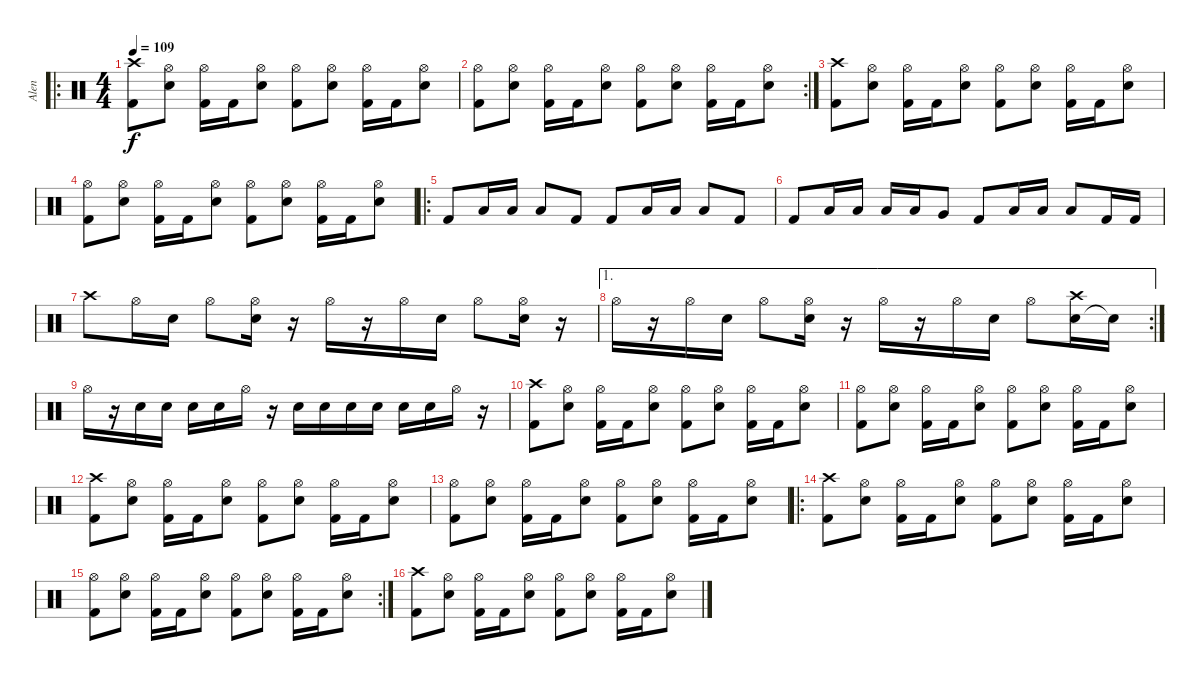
\track ("Alen" "Alen") {instrument percussion}
\staff {score}
\articulation defaults
\ro
\ts (4 4)
\tempo 109
\clef neutral
\ks c
("Crash high (hit)" "Kick (hit) 2").8{dy f} ("Hi-Hat (open)" "Electric Snare (hit)").8 ("Hi-Hat (open)" "Kick (hit) 2").16 "Kick (hit) 2".16 ("Hi-Hat (open)" "Electric Snare (hit)").8 ("Hi-Hat (open)" "Kick (hit) 2").8 ("Hi-Hat (open)" "Electric Snare (hit)").8 ("Hi-Hat (open)" "Kick (hit) 2").16 "Kick (hit) 2".16 ("Hi-Hat (open)" "Electric Snare (hit)").8 |
\rc 2
("Hi-Hat (open)" "Kick (hit) 2").8 ("Hi-Hat (open)" "Electric Snare (hit)").8 ("Hi-Hat (open)" "Kick (hit) 2").16 "Kick (hit) 2".16 ("Hi-Hat (open)" "Electric Snare (hit)").8 ("Hi-Hat (open)" "Kick (hit) 2").8 ("Hi-Hat (open)" "Electric Snare (hit)").8 ("Hi-Hat (open)" "Kick (hit) 2").16 "Kick (hit) 2".16 ("Hi-Hat (open)" "Electric Snare (hit)").8 |
("Crash high (hit)" "Kick (hit) 2").8 ("Hi-Hat (open)" "Electric Snare (hit)").8 ("Hi-Hat (open)" "Kick (hit) 2").16 "Kick (hit) 2".16 ("Hi-Hat (open)" "Electric Snare (hit)").8 ("Hi-Hat (open)" "Kick (hit) 2").8 ("Hi-Hat (open)" "Electric Snare (hit)").8 ("Hi-Hat (open)" "Kick (hit) 2").16 "Kick (hit) 2".16 ("Hi-Hat (open)" "Electric Snare (hit)").8 |
("Hi-Hat (open)" "Kick (hit) 2").8 ("Hi-Hat (open)" "Electric Snare (hit)").8 ("Hi-Hat (open)" "Kick (hit) 2").16 "Kick (hit) 2".16 ("Hi-Hat (open)" "Electric Snare (hit)").8 ("Hi-Hat (open)" "Kick (hit) 2").8 ("Hi-Hat (open)" "Electric Snare (hit)").8 ("Hi-Hat (open)" "Kick (hit) 2").16 "Kick (hit) 2".16 ("Hi-Hat (open)" "Electric Snare (hit)").8 |
\ro "Kick (hit) 2".8 "Low Tom (hit)".16 "Low Floor Tom (hit)".16 "Low Tom (hit)".8 "Kick (hit) 2".8 "Kick (hit) 2".8 "Low Tom (hit)".16 "Low Floor Tom (hit)".16 "Low Tom (hit)".8 "Kick (hit) 2".8
|
"Kick (hit) 2".8 "Low Tom (hit)".16 "Low Floor Tom (hit)".16 "Low Tom (hit)".16 "Low Floor Tom (hit)".16 "Very Low Tom (hit)".8 "Kick (hit) 2".8 "Low Tom (hit)".16 "Low Floor Tom (hit)".16 "Low Tom (hit)".8 "Kick (hit) 2".16 "Kick (hit) 2".16 |
"Crash high (hit)".8 "Hi-Hat (open)".16 "Electric Snare (hit)".16 "Hi-Hat (open)".8 ("Electric Snare (hit)" "Hi-Hat (open)").16 r.16 "Hi-Hat (open)".16 r.16 "Hi-Hat (open)".16 "Electric Snare (hit)".16 "Hi-Hat (open)".8 ("Electric Snare (hit)" "Hi-Hat (open)").16 r.16 |
\ae 1
\rc 2 "Hi-Hat (open)".16
r.16 "Hi-Hat (open)".16 "Electric Snare (hit)".16 "Hi-Hat (open)".8 ("Electric Snare (hit)" "Hi-Hat (open)").16 r.16 "Hi-Hat (open)".16 r.16 "Hi-Hat (open)".16 "Electric Snare (hit)".16 "Hi-Hat (open)".8 ("Electric Snare (hit)" "Crash high (hit)").16 "Snare (hit)"{t}.16 |
"Hi-Hat (open)".16 r.16 "Electric Snare (hit)".16 "Electric Snare (hit)".16 "Electric Snare (hit)".16 "Electric Snare (hit)".16 "Hi-Hat (open)".16 r.16 "Electric Snare (hit)".16 "Electric Snare (hit)".16 "Electric Snare (hit)".16 "Electric Snare (hit)".16 "Electric Snare (hit)".16 "Electric Snare (hit)".16 "Hi-Hat (open)".16 r.16 |
("Crash high (hit)" "Kick (hit) 2").8 ("Hi-Hat (open)" "Electric Snare (hit)").8 ("Hi-Hat (open)" "Kick (hit) 2").16 "Kick (hit) 2".16 ("Hi-Hat (open)" "Electric Snare (hit)").8 ("Hi-Hat (open)" "Kick (hit) 2").8 ("Hi-Hat (open)" "Electric Snare (hit)").8 ("Hi-Hat (open)" "Kick (hit) 2").16 "Kick (hit) 2".16 ("Hi-Hat (open)" "Electric Snare (hit)").8 |
("Hi-Hat (open)" "Kick (hit) 2").8 ("Hi-Hat (open)" "Electric Snare (hit)").8 ("Hi-Hat (open)" "Kick (hit) 2").16 "Kick (hit) 2".16 ("Hi-Hat (open)" "Electric Snare (hit)").8 ("Hi-Hat (open)" "Kick (hit) 2").8 ("Hi-Hat (open)" "Electric Snare (hit)").8 ("Hi-Hat (open)" "Kick (hit) 2").16 "Kick (hit) 2".16 ("Hi-Hat (open)" "Electric Snare (hit)").8 |
("Crash high (hit)" "Kick (hit) 2").8 ("Hi-Hat (open)" "Electric Snare (hit)").8 ("Hi-Hat (open)" "Kick (hit) 2").16 "Kick (hit) 2".16 ("Hi-Hat (open)" "Electric Snare (hit)").8 ("Hi-Hat (open)" "Kick (hit) 2").8 ("Hi-Hat (open)" "Electric Snare (hit)").8 ("Hi-Hat (open)" "Kick (hit) 2").16 "Kick (hit) 2".16 ("Hi-Hat (open)" "Electric Snare (hit)").8 |
("Hi-Hat (open)" "Kick (hit) 2").8 ("Hi-Hat (open)" "Electric Snare (hit)").8 ("Hi-Hat (open)" "Kick (hit) 2").16 "Kick (hit) 2".16 ("Hi-Hat (open)" "Electric Snare (hit)").8 ("Hi-Hat (open)" "Kick (hit) 2").8 ("Hi-Hat (open)" "Electric Snare (hit)").8 ("Hi-Hat (open)" "Kick (hit) 2").16 "Kick (hit) 2".16 ("Hi-Hat (open)" "Electric Snare (hit)").8 |
\ro
("Crash high (hit)" "Kick (hit) 2").8 ("Hi-Hat (open)" "Electric Snare (hit)").8 ("Hi-Hat (open)" "Kick (hit) 2").16 "Kick (hit) 2".16 ("Hi-Hat (open)" "Electric Snare (hit)").8 ("Hi-Hat (open)" "Kick (hit) 2").8 ("Hi-Hat (open)" "Electric Snare (hit)").8 ("Hi-Hat (open)" "Kick (hit) 2").16 "Kick (hit) 2".16 ("Hi-Hat (open)" "Electric Snare (hit)").8 |
\rc 2
("Hi-Hat (open)" "Kick (hit) 2").8 ("Hi-Hat (open)" "Electric Snare (hit)").8 ("Hi-Hat (open)" "Kick (hit) 2").16 "Kick (hit) 2".16 ("Hi-Hat (open)" "Electric Snare (hit)").8 ("Hi-Hat (open)" "Kick (hit) 2").8 ("Hi-Hat (open)" "Electric Snare (hit)").8 ("Hi-Hat (open)" "Kick (hit) 2").16 "Kick (hit) 2".16 ("Hi-Hat (open)" "Electric Snare (hit)").8 |
("Crash high (hit)" "Kick (hit) 2").8 ("Hi-Hat (open)" "Electric Snare (hit)").8 ("Hi-Hat (open)" "Kick (hit) 2").16 "Kick (hit) 2".16 ("Hi-Hat (open)" "Electric Snare (hit)").8 ("Hi-Hat (open)" "Kick (hit) 2").8 ("Hi-Hat (open)" "Electric Snare (hit)").8 ("Hi-Hat (open)" "Kick (hit) 2").16 "Kick (hit) 2".16 ("Hi-Hat (open)" "Electric Snare (hit)").8
